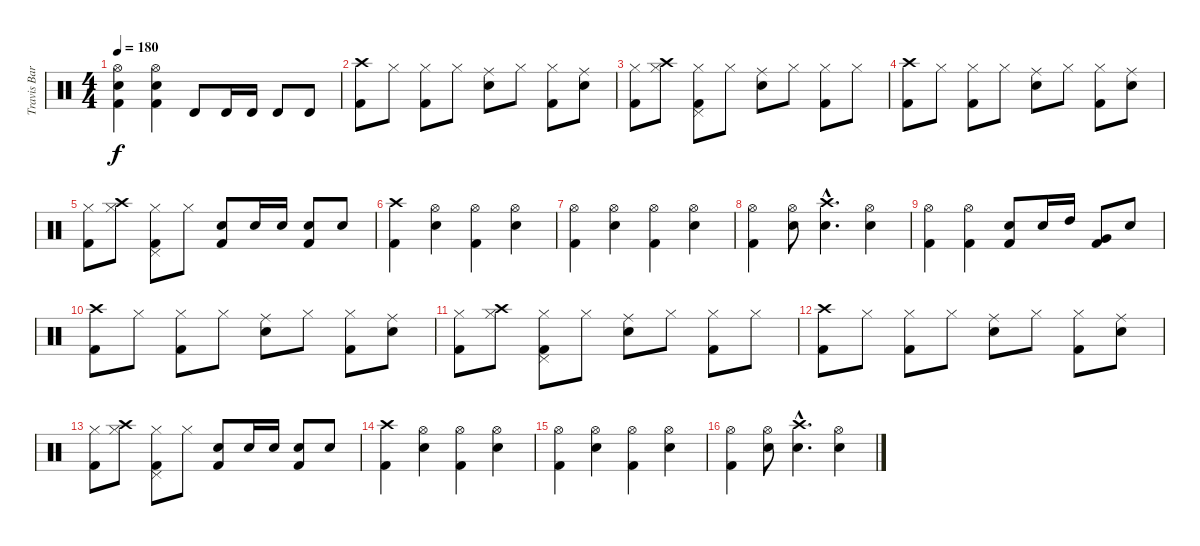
\track ("Travis Barker" "Travis Bar") {instrument percussion}
\staff {score}
\articulation defaults
\ts (4 4)
\tempo 180
\clef neutral
\ks c
("Hi-Hat (open)" "Electric Snare (hit)" "Kick (hit) 2").4{dy f} ("Hi-Hat (open)" "Electric Snare (hit)" "Kick (hit) 2").4 "Timbale high (hit)".8 "Timbale high (hit)".16 "Timbale high (hit)".16 "Timbale high (hit)".8 "Timbale high (hit)".8 |
("Crash high (hit)" "Kick (hit) 2").8 "Hi-Hat (closed)".8 ("Hi-Hat (closed)" "Kick (hit) 2").8 "Hi-Hat (closed)".8 ("Ride (middle)" "Electric Snare (hit)").8 "Hi-Hat (closed)".8 ("Hi-Hat (closed)" "Kick (hit) 2").8 ("Ride (middle)" "Electric Snare (hit)").8 |
("Hi-Hat (closed)" "Kick (hit) 2").8 ("Crash high (hit)" "Hi-Hat (closed)").8 ("Hi-Hat (closed)" "Kick (hit) 2" "Pedal Hi-Hat (hit)").8 "Hi-Hat (closed)".8 ("Ride (middle)" "Electric Snare (hit)").8 "Hi-Hat (closed)".8 ("Hi-Hat (closed)" "Kick (hit) 2").8 "Hi-Hat (closed)".8 |
("Crash high (hit)" "Kick (hit) 2").8 "Hi-Hat (closed)".8 ("Hi-Hat (closed)" "Kick (hit) 2").8 "Hi-Hat (closed)".8 ("Ride (middle)" "Electric Snare (hit)").8 "Hi-Hat (closed)".8 ("Hi-Hat (closed)" "Kick (hit) 2").8 ("Ride (middle)" "Electric Snare (hit)").8 |
("Hi-Hat (closed)" "Kick (hit) 2").8 ("Crash high (hit)" "Hi-Hat (closed)").8 ("Hi-Hat (closed)" "Kick (hit) 2" "Pedal Hi-Hat (hit)").8 "Hi-Hat (closed)".8 ("Electric Snare (hit)" "Kick (hit) 2").8 "Electric Snare (hit)".16 "Electric Snare (hit)".16 ("Electric Snare (hit)" "Kick (hit) 2").8 "Electric Snare (hit)".8 |
("Crash high (hit)" "Kick (hit) 2").4 ("Hi-Hat (open)" "Electric Snare (hit)").4 ("Hi-Hat (open)" "Kick (hit) 2").4 ("Hi-Hat (open)" "Electric Snare (hit)").4 |
("Hi-Hat (open)" "Kick (hit) 2").4 ("Hi-Hat (open)" "Electric Snare (hit)").4 ("Hi-Hat (open)" "Kick (hit) 2").4 ("Hi-Hat (open)" "Electric Snare (hit)").4 |
("Hi-Hat (open)" "Kick (hit) 2").4 ("Hi-Hat (open)" "Electric Snare (hit)").8 ("Crash high (hit)"{hac} "Electric Snare (hit)"{hac}).4{d} ("Hi-Hat (open)" "Electric Snare (hit)").4 |
("Hi-Hat (open)" "Kick (hit) 2").4 ("Hi-Hat (open)" "Kick (hit) 2").4 ("Electric Snare (hit)" "Kick (hit) 2").8 "Electric Snare (hit)".16 "High Tom (hit)".16 ("Kick (hit) 2" "Very Low Tom (hit)").8 "Electric Snare (hit)".8 |
("Crash high (hit)" "Kick (hit) 2").8 "Hi-Hat (closed)".8 ("Hi-Hat (closed)" "Kick (hit) 2").8 "Hi-Hat (closed)".8 ("Ride (middle)" "Electric Snare (hit)").8 "Hi-Hat (closed)".8 ("Hi-Hat (closed)" "Kick (hit) 2").8 ("Ride (middle)" "Electric Snare (hit)").8 |
("Hi-Hat (closed)" "Kick (hit) 2").8 ("Crash high (hit)" "Hi-Hat (closed)").8 ("Hi-Hat (closed)" "Kick (hit) 2" "Pedal Hi-Hat (hit)").8 "Hi-Hat (closed)".8 ("Ride (middle)" "Electric Snare (hit)").8 "Hi-Hat (closed)".8 ("Hi-Hat (closed)" "Kick (hit) 2").8 "Hi-Hat (closed)".8 |
("Crash high (hit)" "Kick (hit) 2").8 "Hi-Hat (closed)".8 ("Hi-Hat (closed)" "Kick (hit) 2").8 "Hi-Hat (closed)".8 ("Ride (middle)" "Electric Snare (hit)").8 "Hi-Hat (closed)".8 ("Hi-Hat (closed)" "Kick (hit) 2").8 ("Ride (middle)" "Electric Snare (hit)").8 |
("Hi-Hat (closed)" "Kick (hit) 2").8 ("Crash high (hit)" "Hi-Hat (closed)").8 ("Hi-Hat (closed)" "Kick (hit) 2" "Pedal Hi-Hat (hit)").8 "Hi-Hat (closed)".8 ("Electric Snare (hit)" "Kick (hit) 2").8 "Electric Snare (hit)".16 "Electric Snare (hit)".16 ("Electric Snare (hit)" "Kick (hit) 2").8 "Electric Snare (hit)".8 |
("Crash high (hit)" "Kick (hit) 2").4 ("Hi-Hat (open)" "Electric Snare (hit)").4 ("Hi-Hat (open)" "Kick (hit) 2").4 ("Hi-Hat (open)" "Electric Snare (hit)").4 |
("Hi-Hat (open)" "Kick (hit) 2").4 ("Hi-Hat (open)" "Electric Snare (hit)").4 ("Hi-Hat (open)" "Kick (hit) 2").4 ("Hi-Hat (open)" "Electric Snare (hit)").4 |
("Hi-Hat (open)" "Kick (hit) 2").4 ("Hi-Hat (open)" "Electric Snare (hit)").8 ("Crash high (hit)"{hac} "Electric Snare (hit)"{hac}).4{d} ("Hi-Hat (open)" "Electric Snare (hit)").4
